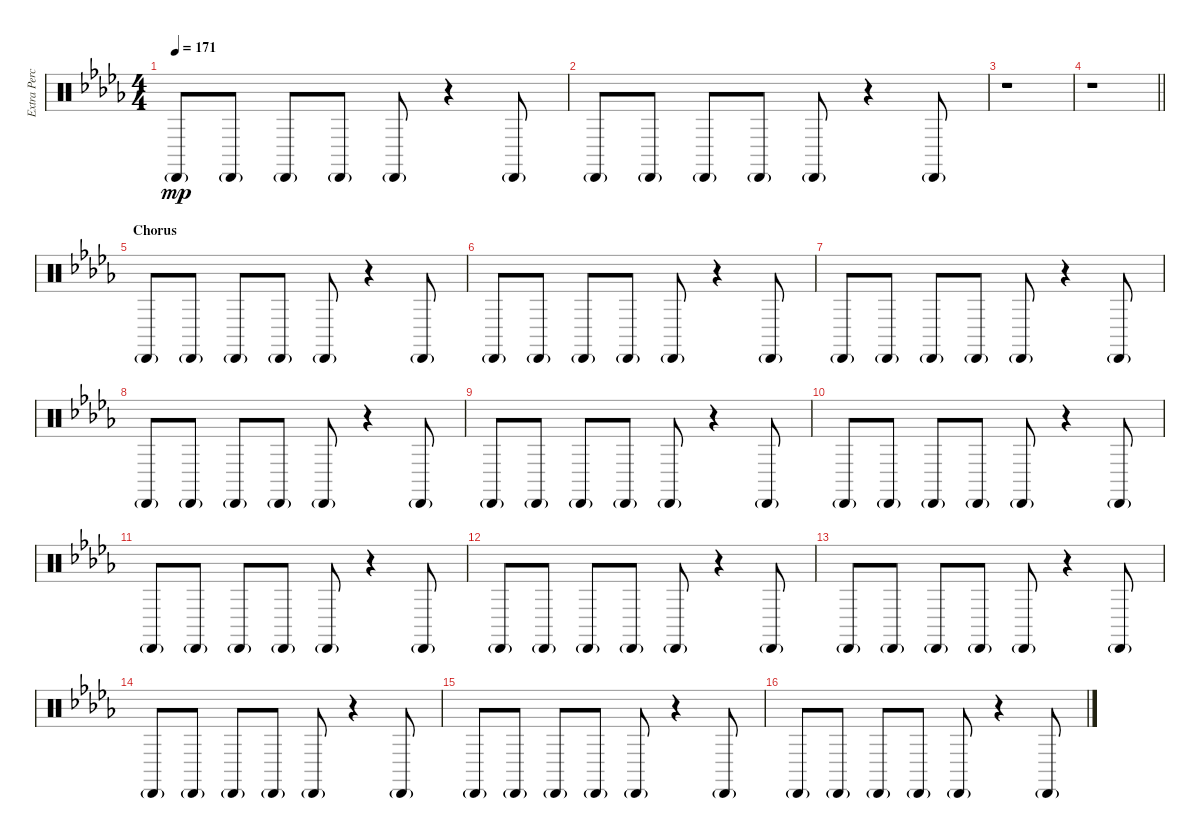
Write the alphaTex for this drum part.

\track ("Extra Percussion" "Extra Perc") {instrument percussion}
\staff {score}
\articulation defaults
\ts (4 4)
\tempo 171
\clef neutral
\ks db "Cabasa (hit)"{g}.8{dy mp} "Cabasa (hit)"{g}.8 "Cabasa (hit)"{g}.8 "Cabasa (hit)"{g}.8 "Cabasa (hit)"{g}.8
r.4 "Cabasa (hit)"{g}.8 |
"Cabasa (hit)"{g}.8 "Cabasa (hit)"{g}.8 "Cabasa (hit)"{g}.8 "Cabasa (hit)"{g}.8 "Cabasa (hit)"{g}.8 r.4 "Cabasa (hit)"{g}.8 |
r.1 |
\barLineRight lightlight
r.1 |
\section ("" "Chorus")
"Cabasa (hit)"{g}.8 "Cabasa (hit)"{g}.8 "Cabasa (hit)"{g}.8 "Cabasa (hit)"{g}.8 "Cabasa (hit)"{g}.8 r.4 "Cabasa (hit)"{g}.8 |
"Cabasa (hit)"{g}.8 "Cabasa (hit)"{g}.8 "Cabasa (hit)"{g}.8 "Cabasa (hit)"{g}.8 "Cabasa (hit)"{g}.8 r.4 "Cabasa (hit)"{g}.8 |
"Cabasa (hit)"{g}.8 "Cabasa (hit)"{g}.8 "Cabasa (hit)"{g}.8 "Cabasa (hit)"{g}.8 "Cabasa (hit)"{g}.8 r.4 "Cabasa (hit)"{g}.8 |
"Cabasa (hit)"{g}.8 "Cabasa (hit)"{g}.8 "Cabasa (hit)"{g}.8 "Cabasa (hit)"{g}.8 "Cabasa (hit)"{g}.8 r.4 "Cabasa (hit)"{g}.8 |
"Cabasa (hit)"{g}.8 "Cabasa (hit)"{g}.8 "Cabasa (hit)"{g}.8 "Cabasa (hit)"{g}.8 "Cabasa (hit)"{g}.8 r.4 "Cabasa (hit)"{g}.8 |
"Cabasa (hit)"{g}.8 "Cabasa (hit)"{g}.8 "Cabasa (hit)"{g}.8 "Cabasa (hit)"{g}.8 "Cabasa (hit)"{g}.8 r.4 "Cabasa (hit)"{g}.8 |
"Cabasa (hit)"{g}.8 "Cabasa (hit)"{g}.8 "Cabasa (hit)"{g}.8 "Cabasa (hit)"{g}.8 "Cabasa (hit)"{g}.8 r.4 "Cabasa (hit)"{g}.8 |
"Cabasa (hit)"{g}.8 "Cabasa (hit)"{g}.8 "Cabasa (hit)"{g}.8 "Cabasa (hit)"{g}.8 "Cabasa (hit)"{g}.8 r.4 "Cabasa (hit)"{g}.8 |
"Cabasa (hit)"{g}.8 "Cabasa (hit)"{g}.8 "Cabasa (hit)"{g}.8 "Cabasa (hit)"{g}.8 "Cabasa (hit)"{g}.8 r.4 "Cabasa (hit)"{g}.8 |
"Cabasa (hit)"{g}.8 "Cabasa (hit)"{g}.8 "Cabasa (hit)"{g}.8 "Cabasa (hit)"{g}.8 "Cabasa (hit)"{g}.8 r.4 "Cabasa (hit)"{g}.8 |
"Cabasa (hit)"{g}.8 "Cabasa (hit)"{g}.8 "Cabasa (hit)"{g}.8 "Cabasa (hit)"{g}.8 "Cabasa (hit)"{g}.8 r.4 "Cabasa (hit)"{g}.8 |
"Cabasa (hit)"{g}.8 "Cabasa (hit)"{g}.8 "Cabasa (hit)"{g}.8 "Cabasa (hit)"{g}.8 "Cabasa (hit)"{g}.8 r.4 "Cabasa (hit)"{g}.8
